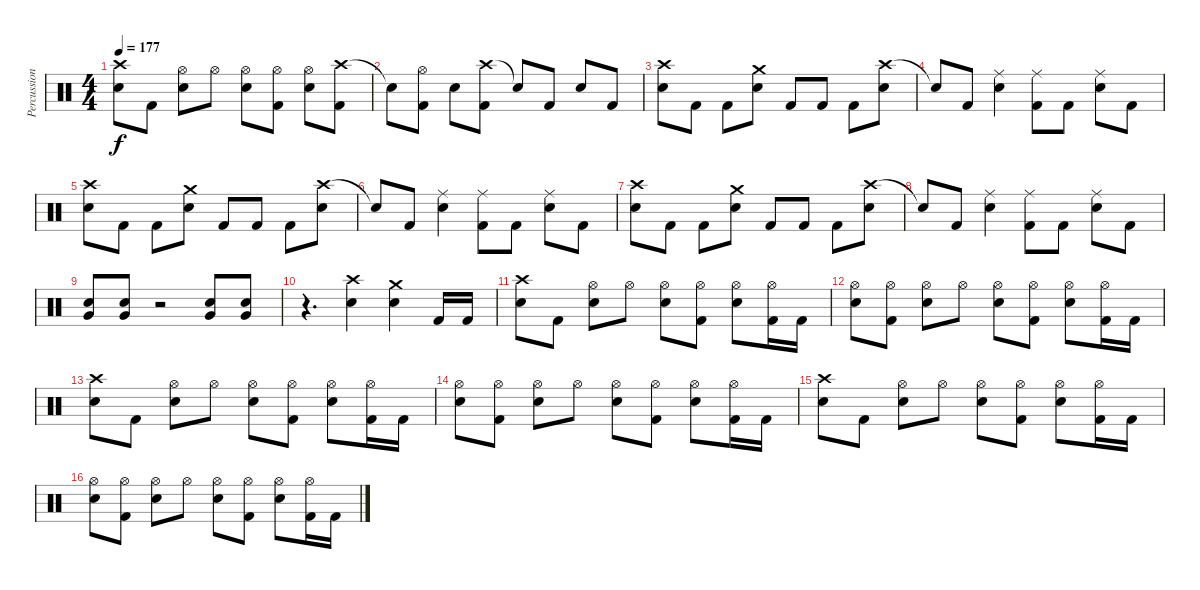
\track ("Percussion" "Percussion") {instrument percussion}
\staff {score}
\articulation defaults
\ts (4 4)
\tempo 177
\clef neutral
\ks c
("Crash high (hit)" "Snare (hit) 2").8{dy f} "Kick (hit) 2".8 ("Hi-Hat (open)" "Snare (hit) 2").8 "Hi-Hat (open)".8 ("Hi-Hat (open)" "Snare (hit) 2").8 ("Hi-Hat (open)" "Kick (hit) 2").8 ("Hi-Hat (open)" "Snare (hit) 2").8 ("Crash high (hit)" "Kick (hit) 2").8 |
"Snare (hit)"{t}.8 ("Hi-Hat (open)" "Kick (hit) 2").8 "Snare (hit) 2".8 ("Crash high (hit)" "Kick (hit) 2").8 "Snare (hit)"{t}.8 "Kick (hit) 2".8 "Snare (hit) 2".8 "Kick (hit) 2".8 |
("Crash high (hit)" "Snare (hit) 2").8 "Kick (hit) 2".8 "Kick (hit) 2".8 ("Crash medium (hit)" "Snare (hit) 2").8 "Kick (hit) 2".8 "Kick (hit) 2".8 "Kick (hit) 2".8 ("Crash high (hit)" "Snare (hit) 2").8 |
"Snare (hit)"{t}.8 "Kick (hit) 2".8 ("Ride (middle)" "Snare (hit) 2").4 ("Ride (middle)" "Kick (hit) 2").8 "Kick (hit) 2".8 ("Ride (middle)" "Snare (hit) 2").8 "Kick (hit) 2".8 |
("Crash high (hit)" "Snare (hit) 2").8 "Kick (hit) 2".8 "Kick (hit) 2".8 ("Crash medium (hit)" "Snare (hit) 2").8 "Kick (hit) 2".8 "Kick (hit) 2".8 "Kick (hit) 2".8 ("Crash high (hit)" "Snare (hit) 2").8 |
"Snare (hit)"{t}.8 "Kick (hit) 2".8 ("Ride (middle)" "Snare (hit) 2").4 ("Ride (middle)" "Kick (hit) 2").8 "Kick (hit) 2".8 ("Ride (middle)" "Snare (hit) 2").8 "Kick (hit) 2".8 |
("Crash high (hit)" "Snare (hit) 2").8 "Kick (hit) 2".8 "Kick (hit) 2".8 ("Crash medium (hit)" "Snare (hit) 2").8 "Kick (hit) 2".8 "Kick (hit) 2".8 "Kick (hit) 2".8 ("Crash high (hit)" "Snare (hit) 2").8 |
"Snare (hit)"{t}.8 "Kick (hit) 2".8 ("Ride (middle)" "Snare (hit) 2").4 ("Ride (middle)" "Kick (hit) 2").8 "Kick (hit) 2".8 ("Ride (middle)" "Snare (hit) 2").8 "Kick (hit) 2".8 |
("Snare (hit) 2" "Very Low Tom (hit)").8 ("Snare (hit) 2" "Very Low Tom (hit)").8 r.2 ("Snare (hit) 2" "Very Low Tom (hit)").8 ("Snare (hit) 2" "Very Low Tom (hit)").8 |
r.4{d} ("Crash high (hit)" "Snare (hit) 2").4 ("Crash medium (hit)" "Snare (hit) 2").4 "Kick (hit) 2".16 "Kick (hit) 2".16 |
("Crash high (hit)" "Snare (hit) 2").8 "Kick (hit) 2".8 ("Hi-Hat (open)" "Snare (hit) 2").8 "Hi-Hat (open)".8 ("Hi-Hat (open)" "Snare (hit) 2").8 ("Hi-Hat (open)" "Kick (hit) 2").8 ("Hi-Hat (open)" "Snare (hit) 2").8 ("Hi-Hat (open)" "Kick (hit) 2").16 "Kick (hit) 2".16 |
("Hi-Hat (open)" "Snare (hit) 2").8 ("Hi-Hat (open)" "Kick (hit) 2").8 ("Hi-Hat (open)" "Snare (hit) 2").8 "Hi-Hat (open)".8 ("Hi-Hat (open)" "Snare (hit) 2").8 ("Hi-Hat (open)" "Kick (hit) 2").8 ("Hi-Hat (open)" "Snare (hit) 2").8 ("Hi-Hat (open)" "Kick (hit) 2").16 "Kick (hit) 2".16 |
("Crash high (hit)" "Snare (hit) 2").8 "Kick (hit) 2".8 ("Hi-Hat (open)" "Snare (hit) 2").8 "Hi-Hat (open)".8 ("Hi-Hat (open)" "Snare (hit) 2").8 ("Hi-Hat (open)" "Kick (hit) 2").8 ("Hi-Hat (open)" "Snare (hit) 2").8 ("Hi-Hat (open)" "Kick (hit) 2").16 "Kick (hit) 2".16 |
("Hi-Hat (open)" "Snare (hit) 2").8 ("Hi-Hat (open)" "Kick (hit) 2").8 ("Hi-Hat (open)" "Snare (hit) 2").8 "Hi-Hat (open)".8 ("Hi-Hat (open)" "Snare (hit) 2").8 ("Hi-Hat (open)" "Kick (hit) 2").8 ("Hi-Hat (open)" "Snare (hit) 2").8 ("Hi-Hat (open)" "Kick (hit) 2").16 "Kick (hit) 2".16 |
("Crash high (hit)" "Snare (hit) 2").8 "Kick (hit) 2".8 ("Hi-Hat (open)" "Snare (hit) 2").8 "Hi-Hat (open)".8 ("Hi-Hat (open)" "Snare (hit) 2").8 ("Hi-Hat (open)" "Kick (hit) 2").8 ("Hi-Hat (open)" "Snare (hit) 2").8 ("Hi-Hat (open)" "Kick (hit) 2").16 "Kick (hit) 2".16 |
("Hi-Hat (open)" "Snare (hit) 2").8 ("Hi-Hat (open)" "Kick (hit) 2").8 ("Hi-Hat (open)" "Snare (hit) 2").8 "Hi-Hat (open)".8 ("Hi-Hat (open)" "Snare (hit) 2").8 ("Hi-Hat (open)" "Kick (hit) 2").8 ("Hi-Hat (open)" "Snare (hit) 2").8 ("Hi-Hat (open)" "Kick (hit) 2").16 "Kick (hit) 2".16
